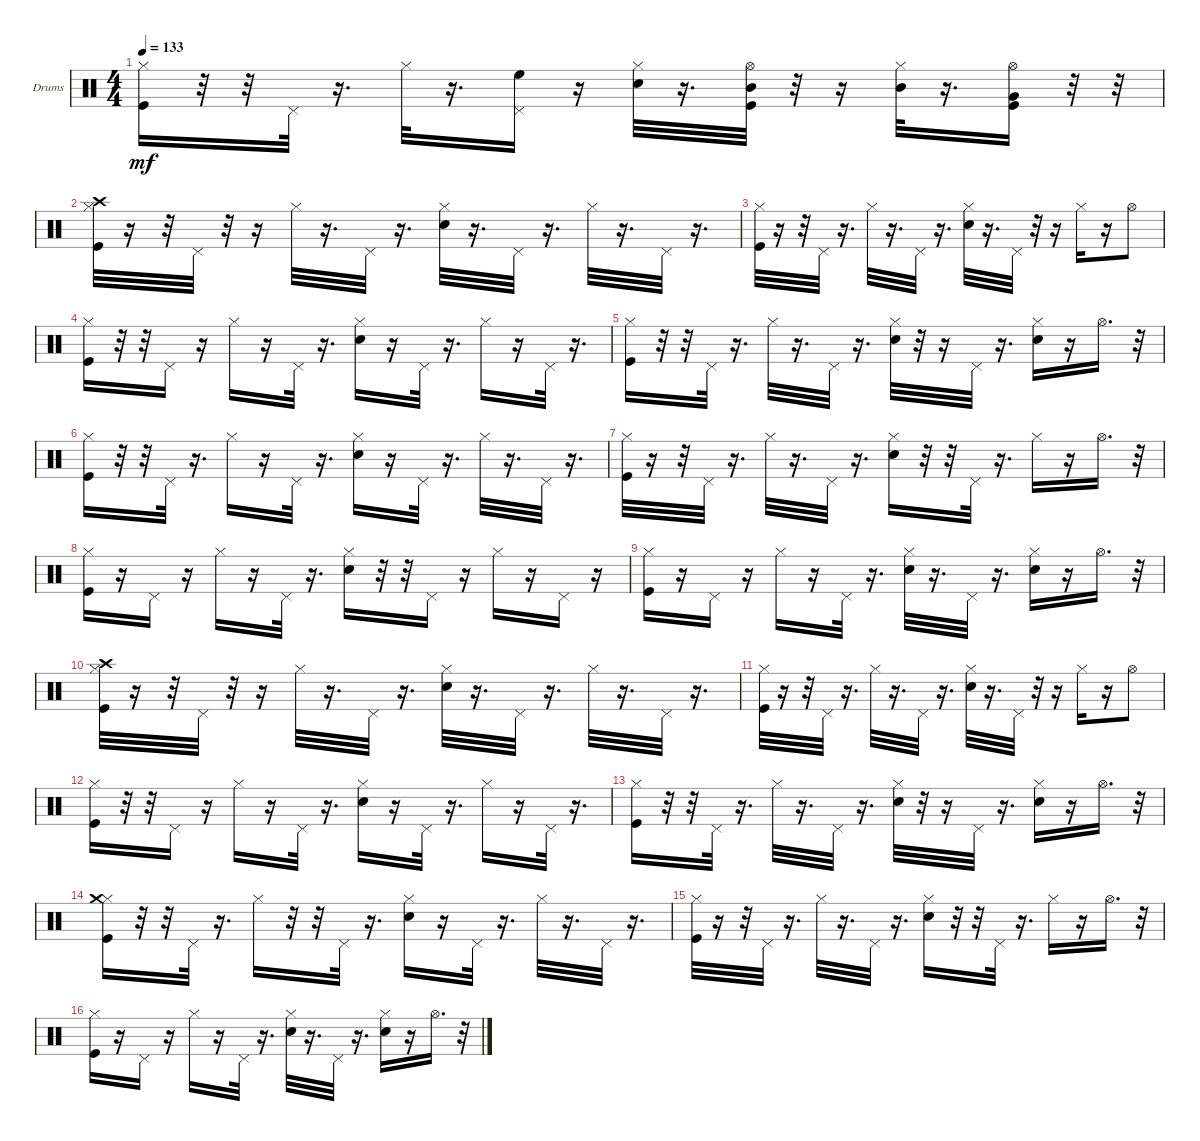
\defaultSystemsLayout 4
\bracketExtendMode groupsimilarinstruments
\firstSystemTrackNameOrientation horizontal
\otherSystemsTrackNameOrientation horizontal
\track ("Drumkit" "Drums") {instrument percussion}
\staff {score}
\articulation defaults
\ts (4 4)
\tempo 133
\clef neutral
\ks c
("Kick (hit)" "Hi-Hat (closed)").16{dy mf} r.32 r.32 "Pedal Hi-Hat (hit)".32 r.16{d} "Hi-Hat (closed)".32 r.16{d} ("Pedal Hi-Hat (hit)" "High Floor Tom (hit)").16 r.16 ("Snare (hit) 2" "Hi-Hat (closed)").32 r.16{d} ("Kick (hit)" "Hi-Hat (open)" "Mid Tom (hit)").32 r.32 r.16 ("Hi-Hat (closed)" "Mid Tom (hit)").32 r.16{d} ("Kick (hit)" "Hi-Hat (open)" "Very Low Tom (hit)").16 r.32 r.32 |
("Kick (hit)" "Hi-Hat (closed)" "Crash high (hit)").32 r.16 r.32 "Pedal Hi-Hat (hit)".32 r.32 r.16 "Hi-Hat (closed)".32 r.16{d} "Pedal Hi-Hat (hit)".32 r.16{d} ("Snare (hit) 2" "Hi-Hat (closed)").32 r.16{d} "Pedal Hi-Hat (hit)".32 r.16{d} "Hi-Hat (closed)".32 r.16{d} "Pedal Hi-Hat (hit)".32 r.16{d} |
("Kick (hit)" "Hi-Hat (closed)").32 r.16 r.32 "Pedal Hi-Hat (hit)".32 r.16{d} "Hi-Hat (closed)".32 r.16{d} "Pedal Hi-Hat (hit)".32 r.16{d} ("Snare (hit) 2" "Hi-Hat (closed)").32 r.16{d} "Pedal Hi-Hat (hit)".32 r.32 r.16 "Hi-Hat (closed)".16 r.16 "Hi-Hat (open)".8 |
("Kick (hit)" "Hi-Hat (closed)").16 r.32 r.32 "Pedal Hi-Hat (hit)".16 r.16 "Hi-Hat (closed)".16 r.16 "Pedal Hi-Hat (hit)".32 r.16{d} ("Snare (hit) 2" "Hi-Hat (closed)").16 r.16 "Pedal Hi-Hat (hit)".32 r.16{d} "Hi-Hat (closed)".16 r.16 "Pedal Hi-Hat (hit)".32 r.16{d} |
("Kick (hit)" "Hi-Hat (closed)").16 r.32 r.32 "Pedal Hi-Hat (hit)".32 r.16{d} "Hi-Hat (closed)".32 r.16{d} "Pedal Hi-Hat (hit)".32 r.16{d} ("Snare (hit) 2" "Hi-Hat (closed)").32 r.32 r.16 "Pedal Hi-Hat (hit)".32 r.16{d} ("Snare (hit) 2" "Hi-Hat (closed)").16 r.16 "Hi-Hat (open)".16{d} r.32 |
("Kick (hit)" "Hi-Hat (closed)").16 r.32 r.32 "Pedal Hi-Hat (hit)".32 r.16{d} "Hi-Hat (closed)".16 r.16 "Pedal Hi-Hat (hit)".32 r.16{d} ("Snare (hit) 2" "Hi-Hat (closed)").16 r.16 "Pedal Hi-Hat (hit)".32 r.16{d} "Hi-Hat (closed)".32 r.16{d} "Pedal Hi-Hat (hit)".32 r.16{d} |
("Kick (hit)" "Hi-Hat (closed)").32 r.16 r.32 "Pedal Hi-Hat (hit)".32 r.16{d} "Hi-Hat (closed)".32 r.16{d} "Pedal Hi-Hat (hit)".32 r.16{d} ("Snare (hit) 2" "Hi-Hat (closed)").16 r.32 r.32 "Pedal Hi-Hat (hit)".32 r.16{d} "Hi-Hat (closed)".16 r.16 "Hi-Hat (open)".16{d} r.32 |
("Kick (hit)" "Hi-Hat (closed)").16 r.16 "Pedal Hi-Hat (hit)".16 r.16 "Hi-Hat (closed)".16 r.16 "Pedal Hi-Hat (hit)".32 r.16{d} ("Snare (hit) 2" "Hi-Hat (closed)").16 r.32 r.32 "Pedal Hi-Hat (hit)".16 r.16 "Hi-Hat (closed)".16 r.16 "Pedal Hi-Hat (hit)".16 r.16 |
("Kick (hit)" "Hi-Hat (closed)").16 r.16 "Pedal Hi-Hat (hit)".16 r.16 "Hi-Hat (closed)".16 r.16 "Pedal Hi-Hat (hit)".32 r.16{d} ("Snare (hit) 2" "Hi-Hat (closed)").32 r.16{d} "Pedal Hi-Hat (hit)".32 r.16{d} ("Snare (hit) 2" "Hi-Hat (closed)").16 r.16 "Hi-Hat (open)".16{d} r.32 |
("Kick (hit)" "Hi-Hat (closed)" "Crash high (hit)").32 r.16 r.32 "Pedal Hi-Hat (hit)".32 r.32 r.16 "Hi-Hat (closed)".32 r.16{d} "Pedal Hi-Hat (hit)".32 r.16{d} ("Snare (hit) 2" "Hi-Hat (closed)").32 r.16{d} "Pedal Hi-Hat (hit)".32 r.16{d} "Hi-Hat (closed)".32 r.16{d} "Pedal Hi-Hat (hit)".32 r.16{d} |
("Kick (hit)" "Hi-Hat (closed)").32 r.16 r.32 "Pedal Hi-Hat (hit)".32 r.16{d} "Hi-Hat (closed)".32 r.16{d} "Pedal Hi-Hat (hit)".32 r.16{d} ("Snare (hit) 2" "Hi-Hat (closed)").32 r.16{d} "Pedal Hi-Hat (hit)".32 r.32 r.16 "Hi-Hat (closed)".16 r.16 "Hi-Hat (open)".8 |
("Kick (hit)" "Hi-Hat (closed)").16 r.32 r.32 "Pedal Hi-Hat (hit)".16 r.16 "Hi-Hat (closed)".16 r.16 "Pedal Hi-Hat (hit)".32 r.16{d} ("Snare (hit) 2" "Hi-Hat (closed)").16 r.16 "Pedal Hi-Hat (hit)".32 r.16{d} "Hi-Hat (closed)".16 r.16 "Pedal Hi-Hat (hit)".32 r.16{d} |
("Kick (hit)" "Hi-Hat (closed)").16 r.32 r.32 "Pedal Hi-Hat (hit)".32 r.16{d} "Hi-Hat (closed)".32 r.16{d} "Pedal Hi-Hat (hit)".32 r.16{d} ("Snare (hit) 2" "Hi-Hat (closed)").32 r.32 r.16 "Pedal Hi-Hat (hit)".32 r.16{d} ("Snare (hit) 2" "Hi-Hat (closed)").16 r.16 "Hi-Hat (open)".16{d} r.32 |
("Kick (hit)" "Hi-Hat (closed)" "Crash medium (hit)").16 r.32 r.32 "Pedal Hi-Hat (hit)".32 r.16{d} "Hi-Hat (closed)".16 r.32 r.32 "Pedal Hi-Hat (hit)".32 r.16{d} ("Snare (hit) 2" "Hi-Hat (closed)").16 r.16 "Pedal Hi-Hat (hit)".32 r.16{d} "Hi-Hat (closed)".32 r.16{d} "Pedal Hi-Hat (hit)".32 r.16{d} |
("Kick (hit)" "Hi-Hat (closed)").32 r.16 r.32 "Pedal Hi-Hat (hit)".32 r.16{d} "Hi-Hat (closed)".32 r.16{d} "Pedal Hi-Hat (hit)".32 r.16{d} ("Snare (hit) 2" "Hi-Hat (closed)").16 r.32 r.32 "Pedal Hi-Hat (hit)".32 r.16{d} "Hi-Hat (closed)".16 r.16 "Hi-Hat (open)".16{d} r.32 |
("Kick (hit)" "Hi-Hat (closed)").16 r.16 "Pedal Hi-Hat (hit)".16 r.16 "Hi-Hat (closed)".16 r.16 "Pedal Hi-Hat (hit)".32 r.16{d} ("Snare (hit) 2" "Hi-Hat (closed)").32 r.16{d} "Pedal Hi-Hat (hit)".32 r.16{d} ("Snare (hit) 2" "Hi-Hat (closed)").16 r.16 "Hi-Hat (open)".16{d} r.32
